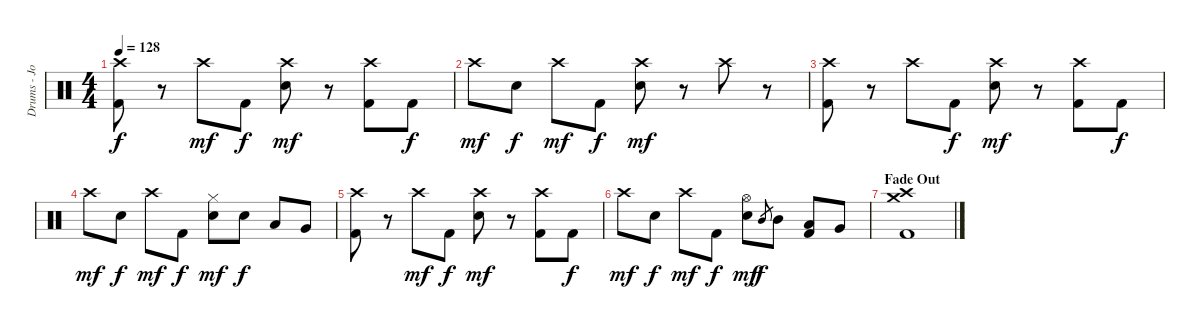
\track ("Drums - John Humphrey" "Drums - Jo") {instrument percussion}
\staff {score}
\articulation defaults
\ts (4 4)
\tempo 128
\clef neutral
\ks c
("Crash high (hit)" "Kick (hit) 2").8{dy f} r.8 "Crash high (hit)".8{dy mf} "Kick (hit) 2".8{dy f} ("Crash high (hit)" "Electric Snare (hit)").8{dy mf} r.8 ("Crash high (hit)" "Kick (hit) 2").8 "Kick (hit) 2".8{dy f} |
"Crash high (hit)".8{dy mf} "Electric Snare (hit)".8{dy f} "Crash high (hit)".8{dy mf} "Kick (hit) 2".8{dy f} ("Crash high (hit)" "Electric Snare (hit)").8{dy mf} r.8 "Crash high (hit)".8 r.8 |
("Crash high (hit)" "Kick (hit) 2").8 r.8 "Crash high (hit)".8 "Kick (hit) 2".8{dy f} ("Crash high (hit)" "Electric Snare (hit)").8{dy mf} r.8 ("Crash high (hit)" "Kick (hit) 2").8 "Kick (hit) 2".8{dy f} |
"Crash high (hit)".8{dy mf} "Electric Snare (hit)".8{dy f} "Crash high (hit)".8{dy mf} "Kick (hit) 2".8{dy f} ("Hi-Hat (closed)" "Electric Snare (hit)").8{dy mf} "Electric Snare (hit)".8{dy f} "Low Tom (hit)".8 "Very Low Tom (hit)".8 |
("Crash high (hit)" "Kick (hit) 2").8 r.8 "Crash high (hit)".8{dy mf} "Kick (hit) 2".8{dy f} ("Crash high (hit)" "Electric Snare (hit)").8{dy mf} r.8 ("Crash high (hit)" "Kick (hit) 2").8 "Kick (hit) 2".8{dy f} |
"Crash high (hit)".8{dy mf} "Electric Snare (hit)".8{dy f} "Crash high (hit)".8{dy mf} "Kick (hit) 2".8{dy f} ("Hi-Hat (open)" "Electric Snare (hit)").8{dy mf} "Mid Tom (hit)".8{gr dy f} "Mid Tom (hit)".8 ("Low Tom (hit)" "Kick (hit) 2").8 "Very Low Tom (hit)".8 |
\section ("" "Fade Out")
("Crash medium (hit)" "Crash high (hit)" "Kick (hit) 2").1
